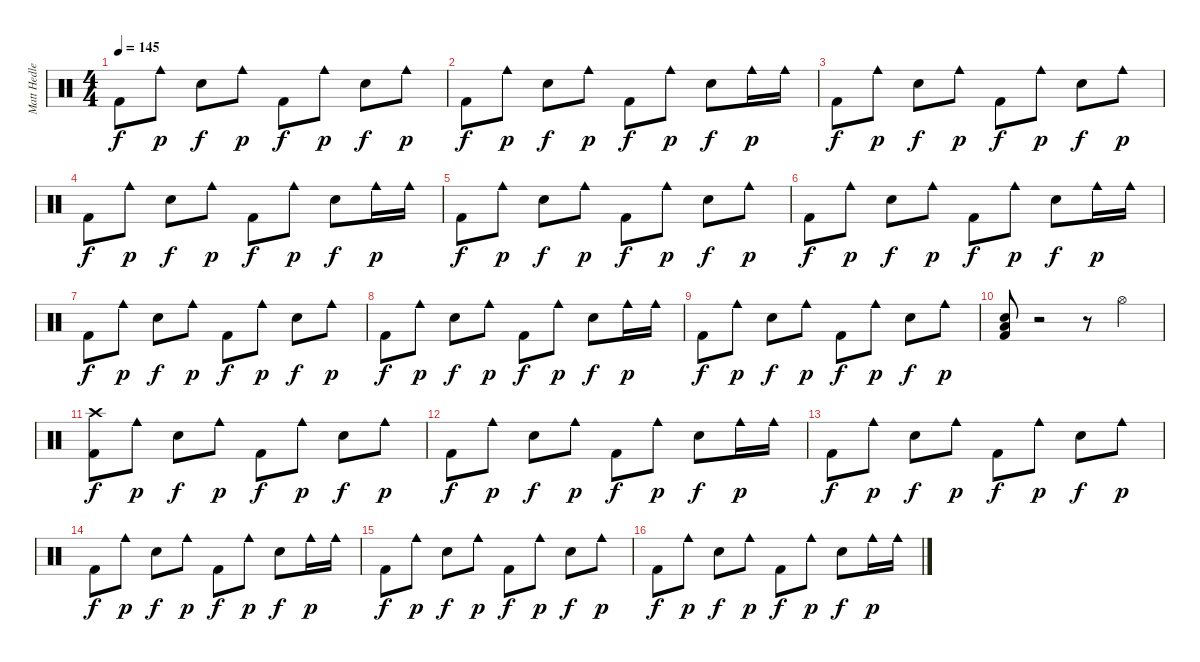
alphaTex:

\track ("Matt Hedlers" "Matt Hedle") {instrument percussion}
\staff {score}
\articulation defaults
\ts (4 4)
\tempo 145
\clef neutral
\ks c "Kick (hit) 2".8{dy f} "Cowbell medium (hit)".8{dy p} "Snare (hit) 2".8{dy f} "Cowbell medium (hit)".8{dy p} "Kick (hit) 2".8{dy f} "Cowbell medium (hit)".8{dy p} "Snare (hit) 2".8{dy f} "Cowbell medium (hit)".8{dy p}
|
"Kick (hit) 2".8{dy f} "Cowbell medium (hit)".8{dy p} "Snare (hit) 2".8{dy f} "Cowbell medium (hit)".8{dy p} "Kick (hit) 2".8{dy f} "Cowbell medium (hit)".8{dy p} "Snare (hit) 2".8{dy f} "Cowbell medium (hit)".16{dy p} "Cowbell medium (hit)".16 |
"Kick (hit) 2".8{dy f} "Cowbell medium (hit)".8{dy p} "Snare (hit) 2".8{dy f} "Cowbell medium (hit)".8{dy p} "Kick (hit) 2".8{dy f} "Cowbell medium (hit)".8{dy p} "Snare (hit) 2".8{dy f} "Cowbell medium (hit)".8{dy p} |
"Kick (hit) 2".8{dy f} "Cowbell medium (hit)".8{dy p} "Snare (hit) 2".8{dy f} "Cowbell medium (hit)".8{dy p} "Kick (hit) 2".8{dy f} "Cowbell medium (hit)".8{dy p} "Snare (hit) 2".8{dy f} "Cowbell medium (hit)".16{dy p} "Cowbell medium (hit)".16 |
"Kick (hit) 2".8{dy f} "Cowbell medium (hit)".8{dy p} "Snare (hit) 2".8{dy f} "Cowbell medium (hit)".8{dy p} "Kick (hit) 2".8{dy f} "Cowbell medium (hit)".8{dy p} "Snare (hit) 2".8{dy f} "Cowbell medium (hit)".8{dy p} |
"Kick (hit) 2".8{dy f} "Cowbell medium (hit)".8{dy p} "Snare (hit) 2".8{dy f} "Cowbell medium (hit)".8{dy p} "Kick (hit) 2".8{dy f} "Cowbell medium (hit)".8{dy p} "Snare (hit) 2".8{dy f} "Cowbell medium (hit)".16{dy p} "Cowbell medium (hit)".16 |
"Kick (hit) 2".8{dy f} "Cowbell medium (hit)".8{dy p} "Snare (hit) 2".8{dy f} "Cowbell medium (hit)".8{dy p} "Kick (hit) 2".8{dy f} "Cowbell medium (hit)".8{dy p} "Snare (hit) 2".8{dy f} "Cowbell medium (hit)".8{dy p} |
"Kick (hit) 2".8{dy f} "Cowbell medium (hit)".8{dy p} "Snare (hit) 2".8{dy f} "Cowbell medium (hit)".8{dy p} "Kick (hit) 2".8{dy f} "Cowbell medium (hit)".8{dy p} "Snare (hit) 2".8{dy f} "Cowbell medium (hit)".16{dy p} "Cowbell medium (hit)".16 |
"Kick (hit) 2".8{dy f} "Cowbell medium (hit)".8{dy p} "Snare (hit) 2".8{dy f} "Cowbell medium (hit)".8{dy p} "Kick (hit) 2".8{dy f} "Cowbell medium (hit)".8{dy p} "Snare (hit) 2".8{dy f} "Cowbell medium (hit)".8{dy p} |
("Low Tom (hit)" "Snare (hit) 2" "Kick (hit) 2").8 r.2 r.8 "Hi-Hat (open)".4 |
("Crash high (hit)" "Kick (hit) 2").8{dy f} "Cowbell medium (hit)".8{dy p} "Snare (hit) 2".8{dy f} "Cowbell medium (hit)".8{dy p} "Kick (hit) 2".8{dy f} "Cowbell medium (hit)".8{dy p} "Snare (hit) 2".8{dy f} "Cowbell medium (hit)".8{dy p} |
"Kick (hit) 2".8{dy f} "Cowbell medium (hit)".8{dy p} "Snare (hit) 2".8{dy f} "Cowbell medium (hit)".8{dy p} "Kick (hit) 2".8{dy f} "Cowbell medium (hit)".8{dy p} "Snare (hit) 2".8{dy f} "Cowbell medium (hit)".16{dy p} "Cowbell medium (hit)".16 |
"Kick (hit) 2".8{dy f} "Cowbell medium (hit)".8{dy p} "Snare (hit) 2".8{dy f} "Cowbell medium (hit)".8{dy p} "Kick (hit) 2".8{dy f} "Cowbell medium (hit)".8{dy p} "Snare (hit) 2".8{dy f} "Cowbell medium (hit)".8{dy p} |
"Kick (hit) 2".8{dy f} "Cowbell medium (hit)".8{dy p} "Snare (hit) 2".8{dy f} "Cowbell medium (hit)".8{dy p} "Kick (hit) 2".8{dy f} "Cowbell medium (hit)".8{dy p} "Snare (hit) 2".8{dy f} "Cowbell medium (hit)".16{dy p} "Cowbell medium (hit)".16 |
"Kick (hit) 2".8{dy f} "Cowbell medium (hit)".8{dy p} "Snare (hit) 2".8{dy f} "Cowbell medium (hit)".8{dy p} "Kick (hit) 2".8{dy f} "Cowbell medium (hit)".8{dy p} "Snare (hit) 2".8{dy f} "Cowbell medium (hit)".8{dy p} |
"Kick (hit) 2".8{dy f} "Cowbell medium (hit)".8{dy p} "Snare (hit) 2".8{dy f} "Cowbell medium (hit)".8{dy p} "Kick (hit) 2".8{dy f} "Cowbell medium (hit)".8{dy p} "Snare (hit) 2".8{dy f} "Cowbell medium (hit)".16{dy p} "Cowbell medium (hit)".16
